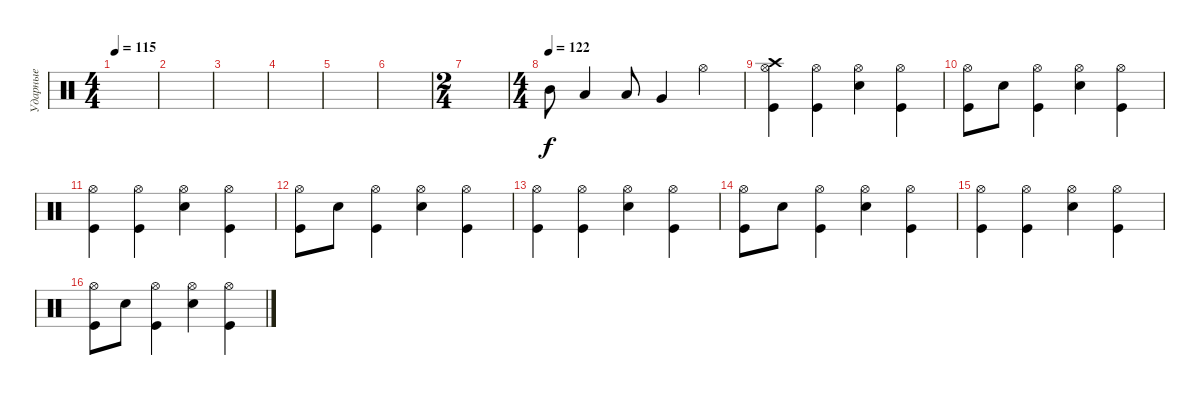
\track ("Ударные" "Ударные") {instrument percussion}
\staff {score}
\articulation defaults
\ts (4 4)
\tempo 115
\clef neutral
\ks c
|
|
|
|
|
|
\ts (2 4)
|
\ts (4 4)
\tempo (122)
"Mid Tom (hit)".8 "Low Tom (hit)".4 "Low Tom (hit)".8 "Very Low Tom (hit)".4 "Hi-Hat (open)".4 |
("Kick (hit)" "Hi-Hat (open)" "Crash high (hit)").4 ("Kick (hit)" "Hi-Hat (open)").4 ("Snare (hit) 2" "Hi-Hat (open)").4 ("Kick (hit)" "Hi-Hat (open)").4 |
("Kick (hit)" "Hi-Hat (open)").8 "Snare (hit) 2".8 ("Kick (hit)" "Hi-Hat (open)").4 ("Snare (hit) 2" "Hi-Hat (open)").4 ("Kick (hit)" "Hi-Hat (open)").4 |
("Kick (hit)" "Hi-Hat (open)").4 ("Kick (hit)" "Hi-Hat (open)").4 ("Snare (hit) 2" "Hi-Hat (open)").4 ("Kick (hit)" "Hi-Hat (open)").4 |
("Kick (hit)" "Hi-Hat (open)").8 "Snare (hit) 2".8 ("Kick (hit)" "Hi-Hat (open)").4 ("Snare (hit) 2" "Hi-Hat (open)").4 ("Kick (hit)" "Hi-Hat (open)").4 |
("Kick (hit)" "Hi-Hat (open)").4 ("Kick (hit)" "Hi-Hat (open)").4 ("Snare (hit) 2" "Hi-Hat (open)").4 ("Kick (hit)" "Hi-Hat (open)").4 |
("Kick (hit)" "Hi-Hat (open)").8 "Snare (hit) 2".8 ("Kick (hit)" "Hi-Hat (open)").4 ("Snare (hit) 2" "Hi-Hat (open)").4 ("Kick (hit)" "Hi-Hat (open)").4 |
("Kick (hit)" "Hi-Hat (open)").4 ("Kick (hit)" "Hi-Hat (open)").4 ("Snare (hit) 2" "Hi-Hat (open)").4 ("Kick (hit)" "Hi-Hat (open)").4 |
("Kick (hit)" "Hi-Hat (open)").8 "Snare (hit) 2".8 ("Kick (hit)" "Hi-Hat (open)").4 ("Snare (hit) 2" "Hi-Hat (open)").4 ("Kick (hit)" "Hi-Hat (open)").4
